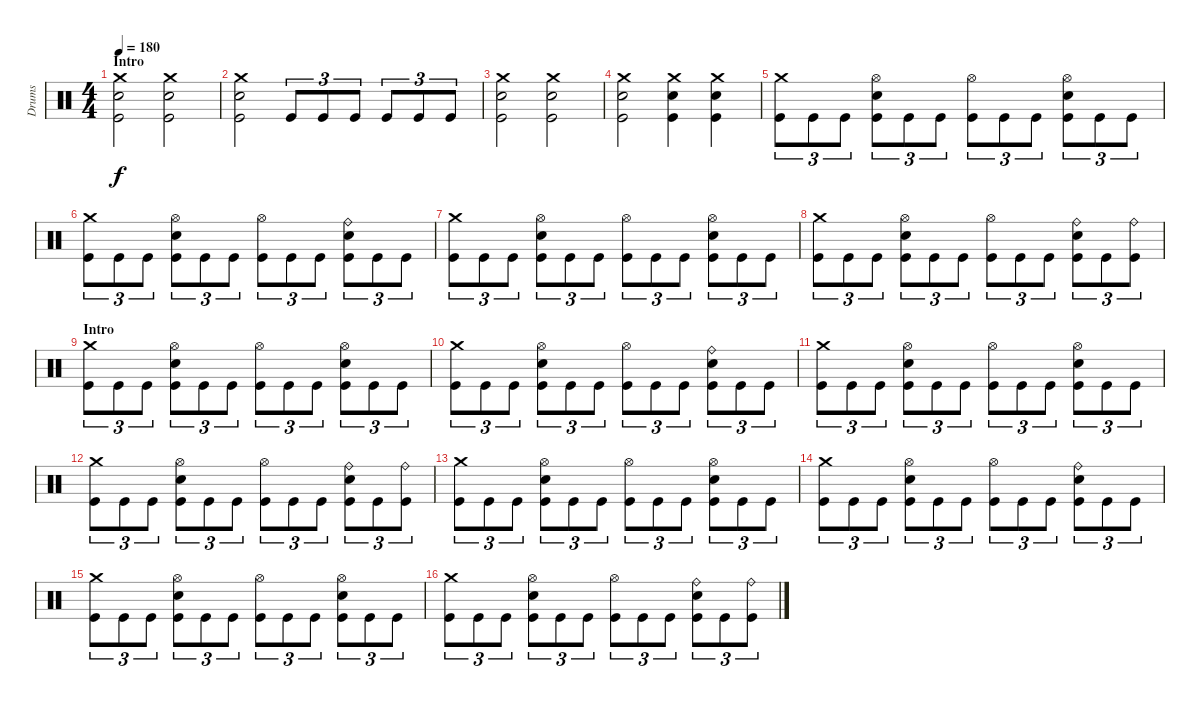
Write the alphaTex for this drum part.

\track ("Drums" "Drums") {instrument percussion}
\staff {score}
\articulation defaults
\ts (4 4)
\section ("" "Intro")
\tempo 180
\clef neutral
\ks c
("Crash medium (hit)" "Electric Snare (hit)" "Kick (hit)").2{dy f} ("Crash medium (hit)" "Electric Snare (hit)" "Kick (hit)").2 |
("Crash medium (hit)" "Electric Snare (hit)" "Kick (hit)").2 "Kick (hit)".8{tu (3 2)} "Kick (hit)".8{tu (3 2)} "Kick (hit)".8{tu (3 2)} "Kick (hit)".8{tu (3 2)} "Kick (hit)".8{tu (3 2)} "Kick (hit)".8{tu (3 2)} |
("Crash medium (hit)" "Electric Snare (hit)" "Kick (hit)").2 ("Crash medium (hit)" "Electric Snare (hit)" "Kick (hit)").2 |
("Crash medium (hit)" "Electric Snare (hit)" "Kick (hit)").2 ("Crash medium (hit)" "Electric Snare (hit)" "Kick (hit)").4 ("Crash medium (hit)" "Electric Snare (hit)" "Kick (hit)").4 |
("Crash medium (hit)" "Kick (hit)").8{tu (3 2)} "Kick (hit)".8{tu (3 2)} "Kick (hit)".8{tu (3 2)} ("Hi-Hat (open)" "Electric Snare (hit)" "Kick (hit)").8{tu (3 2)} "Kick (hit)".8{tu (3 2)} "Kick (hit)".8{tu (3 2)} ("Hi-Hat (open)" "Kick (hit)").8{tu (3 2)} "Kick (hit)".8{tu (3 2)} "Kick (hit)".8{tu (3 2)} ("Hi-Hat (open)" "Electric Snare (hit)" "Kick (hit)").8{tu (3 2)} "Kick (hit)".8{tu (3 2)} "Kick (hit)".8{tu (3 2)} |
("Crash medium (hit)" "Kick (hit)").8{tu (3 2)} "Kick (hit)".8{tu (3 2)} "Kick (hit)".8{tu (3 2)} ("Hi-Hat (open)" "Electric Snare (hit)" "Kick (hit)").8{tu (3 2)} "Kick (hit)".8{tu (3 2)} "Kick (hit)".8{tu (3 2)} ("Hi-Hat (open)" "Kick (hit)").8{tu (3 2)} "Kick (hit)".8{tu (3 2)} "Kick (hit)".8{tu (3 2)} ("Ride (bell)" "Electric Snare (hit)" "Kick (hit)").8{tu (3 2)} "Kick (hit)".8{tu (3 2)} "Kick (hit)".8{tu (3 2)} |
("Crash medium (hit)" "Kick (hit)").8{tu (3 2)} "Kick (hit)".8{tu (3 2)} "Kick (hit)".8{tu (3 2)} ("Hi-Hat (open)" "Electric Snare (hit)" "Kick (hit)").8{tu (3 2)} "Kick (hit)".8{tu (3 2)} "Kick (hit)".8{tu (3 2)} ("Hi-Hat (open)" "Kick (hit)").8{tu (3 2)} "Kick (hit)".8{tu (3 2)} "Kick (hit)".8{tu (3 2)} ("Hi-Hat (open)" "Electric Snare (hit)" "Kick (hit)").8{tu (3 2)} "Kick (hit)".8{tu (3 2)} "Kick (hit)".8{tu (3 2)} |
("Crash medium (hit)" "Kick (hit)").8{tu (3 2)} "Kick (hit)".8{tu (3 2)} "Kick (hit)".8{tu (3 2)} ("Hi-Hat (open)" "Electric Snare (hit)" "Kick (hit)").8{tu (3 2)} "Kick (hit)".8{tu (3 2)} "Kick (hit)".8{tu (3 2)} ("Hi-Hat (open)" "Kick (hit)").8{tu (3 2)} "Kick (hit)".8{tu (3 2)} "Kick (hit)".8{tu (3 2)} ("Ride (bell)" "Electric Snare (hit)" "Kick (hit)").8{tu (3 2)} "Kick (hit)".8{tu (3 2)} ("Ride (bell)" "Kick (hit)").8{tu (3 2)} |
\section ("" "Intro")
("Crash medium (hit)" "Kick (hit)").8{tu (3 2)} "Kick (hit)".8{tu (3 2)} "Kick (hit)".8{tu (3 2)} ("Hi-Hat (open)" "Electric Snare (hit)" "Kick (hit)").8{tu (3 2)} "Kick (hit)".8{tu (3 2)} "Kick (hit)".8{tu (3 2)} ("Hi-Hat (open)" "Kick (hit)").8{tu (3 2)} "Kick (hit)".8{tu (3 2)} "Kick (hit)".8{tu (3 2)} ("Hi-Hat (open)" "Electric Snare (hit)" "Kick (hit)").8{tu (3 2)} "Kick (hit)".8{tu (3 2)} "Kick (hit)".8{tu (3 2)} |
("Crash medium (hit)" "Kick (hit)").8{tu (3 2)} "Kick (hit)".8{tu (3 2)} "Kick (hit)".8{tu (3 2)} ("Hi-Hat (open)" "Electric Snare (hit)" "Kick (hit)").8{tu (3 2)} "Kick (hit)".8{tu (3 2)} "Kick (hit)".8{tu (3 2)} ("Hi-Hat (open)" "Kick (hit)").8{tu (3 2)} "Kick (hit)".8{tu (3 2)} "Kick (hit)".8{tu (3 2)} ("Ride (bell)" "Electric Snare (hit)" "Kick (hit)").8{tu (3 2)} "Kick (hit)".8{tu (3 2)} "Kick (hit)".8{tu (3 2)} |
("Crash medium (hit)" "Kick (hit)").8{tu (3 2)} "Kick (hit)".8{tu (3 2)} "Kick (hit)".8{tu (3 2)} ("Hi-Hat (open)" "Electric Snare (hit)" "Kick (hit)").8{tu (3 2)} "Kick (hit)".8{tu (3 2)} "Kick (hit)".8{tu (3 2)} ("Hi-Hat (open)" "Kick (hit)").8{tu (3 2)} "Kick (hit)".8{tu (3 2)} "Kick (hit)".8{tu (3 2)} ("Hi-Hat (open)" "Electric Snare (hit)" "Kick (hit)").8{tu (3 2)} "Kick (hit)".8{tu (3 2)} "Kick (hit)".8{tu (3 2)} |
("Crash medium (hit)" "Kick (hit)").8{tu (3 2)} "Kick (hit)".8{tu (3 2)} "Kick (hit)".8{tu (3 2)} ("Hi-Hat (open)" "Electric Snare (hit)" "Kick (hit)").8{tu (3 2)} "Kick (hit)".8{tu (3 2)} "Kick (hit)".8{tu (3 2)} ("Hi-Hat (open)" "Kick (hit)").8{tu (3 2)} "Kick (hit)".8{tu (3 2)} "Kick (hit)".8{tu (3 2)} ("Ride (bell)" "Electric Snare (hit)" "Kick (hit)").8{tu (3 2)} "Kick (hit)".8{tu (3 2)} ("Ride (bell)" "Kick (hit)").8{tu (3 2)} |
("Crash medium (hit)" "Kick (hit)").8{tu (3 2)} "Kick (hit)".8{tu (3 2)} "Kick (hit)".8{tu (3 2)} ("Hi-Hat (open)" "Electric Snare (hit)" "Kick (hit)").8{tu (3 2)} "Kick (hit)".8{tu (3 2)} "Kick (hit)".8{tu (3 2)} ("Hi-Hat (open)" "Kick (hit)").8{tu (3 2)} "Kick (hit)".8{tu (3 2)} "Kick (hit)".8{tu (3 2)} ("Hi-Hat (open)" "Electric Snare (hit)" "Kick (hit)").8{tu (3 2)} "Kick (hit)".8{tu (3 2)} "Kick (hit)".8{tu (3 2)} |
("Crash medium (hit)" "Kick (hit)").8{tu (3 2)} "Kick (hit)".8{tu (3 2)} "Kick (hit)".8{tu (3 2)} ("Hi-Hat (open)" "Electric Snare (hit)" "Kick (hit)").8{tu (3 2)} "Kick (hit)".8{tu (3 2)} "Kick (hit)".8{tu (3 2)} ("Hi-Hat (open)" "Kick (hit)").8{tu (3 2)} "Kick (hit)".8{tu (3 2)} "Kick (hit)".8{tu (3 2)} ("Ride (bell)" "Electric Snare (hit)" "Kick (hit)").8{tu (3 2)} "Kick (hit)".8{tu (3 2)} "Kick (hit)".8{tu (3 2)} |
("Crash medium (hit)" "Kick (hit)").8{tu (3 2)} "Kick (hit)".8{tu (3 2)} "Kick (hit)".8{tu (3 2)} ("Hi-Hat (open)" "Electric Snare (hit)" "Kick (hit)").8{tu (3 2)} "Kick (hit)".8{tu (3 2)} "Kick (hit)".8{tu (3 2)} ("Hi-Hat (open)" "Kick (hit)").8{tu (3 2)} "Kick (hit)".8{tu (3 2)} "Kick (hit)".8{tu (3 2)} ("Hi-Hat (open)" "Electric Snare (hit)" "Kick (hit)").8{tu (3 2)} "Kick (hit)".8{tu (3 2)} "Kick (hit)".8{tu (3 2)} |
("Crash medium (hit)" "Kick (hit)").8{tu (3 2)} "Kick (hit)".8{tu (3 2)} "Kick (hit)".8{tu (3 2)} ("Hi-Hat (open)" "Electric Snare (hit)" "Kick (hit)").8{tu (3 2)} "Kick (hit)".8{tu (3 2)} "Kick (hit)".8{tu (3 2)} ("Hi-Hat (open)" "Kick (hit)").8{tu (3 2)} "Kick (hit)".8{tu (3 2)} "Kick (hit)".8{tu (3 2)} ("Ride (bell)" "Electric Snare (hit)" "Kick (hit)").8{tu (3 2)} "Kick (hit)".8{tu (3 2)} ("Ride (bell)" "Kick (hit)").8{tu (3 2)}
